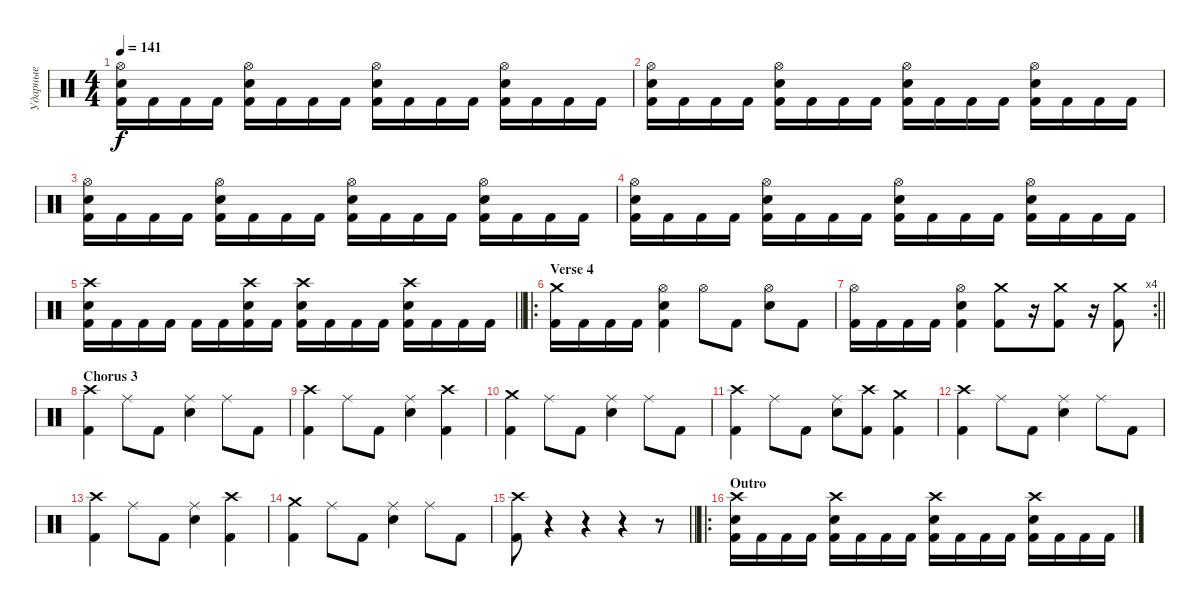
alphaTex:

\track ("Ударные" "Ударные") {instrument percussion}
\staff {score}
\articulation defaults
\ts (4 4)
\tempo 141
\clef neutral
\ks c
("Hi-Hat (open)" "Electric Snare (hit)" "Kick (hit) 2").16{dy f} "Kick (hit) 2".16 "Kick (hit) 2".16 "Kick (hit) 2".16 ("Hi-Hat (open)" "Electric Snare (hit)" "Kick (hit) 2").16 "Kick (hit) 2".16 "Kick (hit) 2".16 "Kick (hit) 2".16 ("Hi-Hat (open)" "Electric Snare (hit)" "Kick (hit) 2").16 "Kick (hit) 2".16 "Kick (hit) 2".16 "Kick (hit) 2".16 ("Hi-Hat (open)" "Electric Snare (hit)" "Kick (hit) 2").16 "Kick (hit) 2".16 "Kick (hit) 2".16 "Kick (hit) 2".16 |
("Hi-Hat (open)" "Electric Snare (hit)" "Kick (hit) 2").16 "Kick (hit) 2".16 "Kick (hit) 2".16 "Kick (hit) 2".16 ("Hi-Hat (open)" "Electric Snare (hit)" "Kick (hit) 2").16 "Kick (hit) 2".16 "Kick (hit) 2".16 "Kick (hit) 2".16 ("Hi-Hat (open)" "Electric Snare (hit)" "Kick (hit) 2").16 "Kick (hit) 2".16 "Kick (hit) 2".16 "Kick (hit) 2".16 ("Hi-Hat (open)" "Electric Snare (hit)" "Kick (hit) 2").16 "Kick (hit) 2".16 "Kick (hit) 2".16 "Kick (hit) 2".16 |
("Hi-Hat (open)" "Electric Snare (hit)" "Kick (hit) 2").16 "Kick (hit) 2".16 "Kick (hit) 2".16 "Kick (hit) 2".16 ("Hi-Hat (open)" "Electric Snare (hit)" "Kick (hit) 2").16 "Kick (hit) 2".16 "Kick (hit) 2".16 "Kick (hit) 2".16 ("Hi-Hat (open)" "Electric Snare (hit)" "Kick (hit) 2").16 "Kick (hit) 2".16 "Kick (hit) 2".16 "Kick (hit) 2".16 ("Hi-Hat (open)" "Electric Snare (hit)" "Kick (hit) 2").16 "Kick (hit) 2".16 "Kick (hit) 2".16 "Kick (hit) 2".16 |
("Hi-Hat (open)" "Electric Snare (hit)" "Kick (hit) 2").16 "Kick (hit) 2".16 "Kick (hit) 2".16 "Kick (hit) 2".16 ("Hi-Hat (open)" "Electric Snare (hit)" "Kick (hit) 2").16 "Kick (hit) 2".16 "Kick (hit) 2".16 "Kick (hit) 2".16 ("Hi-Hat (open)" "Electric Snare (hit)" "Kick (hit) 2").16 "Kick (hit) 2".16 "Kick (hit) 2".16 "Kick (hit) 2".16 ("Hi-Hat (open)" "Electric Snare (hit)" "Kick (hit) 2").16 "Kick (hit) 2".16 "Kick (hit) 2".16 "Kick (hit) 2".16 |
\barLineRight lightlight
("Crash high (hit)" "Electric Snare (hit)" "Kick (hit) 2").16 "Kick (hit) 2".16 "Kick (hit) 2".16 "Kick (hit) 2".16 "Kick (hit) 2".16 "Kick (hit) 2".16 ("Crash high (hit)" "Electric Snare (hit)" "Kick (hit) 2").16 "Kick (hit) 2".16 ("Crash high (hit)" "Electric Snare (hit)" "Kick (hit) 2").16 "Kick (hit) 2".16 "Kick (hit) 2".16 "Kick (hit) 2".16 ("Crash high (hit)" "Electric Snare (hit)" "Kick (hit) 2").16 "Kick (hit) 2".16 "Kick (hit) 2".16 "Kick (hit) 2".16 |
\ro
\section ("" "Verse 4")
("Crash medium (hit)" "Kick (hit) 2").16 "Kick (hit) 2".16 "Kick (hit) 2".16 "Kick (hit) 2".16 ("Hi-Hat (open)" "Electric Snare (hit)" "Kick (hit) 2").4 "Hi-Hat (open)".8 "Kick (hit) 2".8 ("Hi-Hat (open)" "Electric Snare (hit)").8 "Kick (hit) 2".8 |
\rc 4
\barLineRight lightlight
("Hi-Hat (open)" "Kick (hit) 2").16 "Kick (hit) 2".16 "Kick (hit) 2".16 "Kick (hit) 2".16 ("Hi-Hat (open)" "Electric Snare (hit)" "Kick (hit) 2").4 ("Crash medium (hit)" "Kick (hit) 2").8 r.16 ("Crash medium (hit)" "Kick (hit) 2").8 r.16 ("Crash medium (hit)" "Kick (hit) 2").8 |
\section ("" "Chorus 3")
("Crash high (hit)" "Kick (hit) 2").4 "Ride (middle)".8 "Kick (hit) 2".8 ("Ride (middle)" "Electric Snare (hit)").4 "Ride (middle)".8 "Kick (hit) 2".8 |
("Crash high (hit)" "Kick (hit) 2").4 "Ride (middle)".8 "Kick (hit) 2".8 ("Ride (middle)" "Electric Snare (hit)").4 ("Crash high (hit)" "Kick (hit) 2").4 |
("Crash medium (hit)" "Kick (hit) 2").4 "Ride (middle)".8 "Kick (hit) 2".8 ("Ride (middle)" "Electric Snare (hit)").4 "Ride (middle)".8 "Kick (hit) 2".8 |
("Crash high (hit)" "Kick (hit) 2").4 "Ride (middle)".8 "Kick (hit) 2".8 ("Ride (middle)" "Electric Snare (hit)").8 ("Crash high (hit)" "Kick (hit) 2").8 ("Crash medium (hit)" "Kick (hit) 2").4 |
("Crash high (hit)" "Kick (hit) 2").4 "Ride (middle)".8 "Kick (hit) 2".8 ("Ride (middle)" "Electric Snare (hit)").4 "Ride (middle)".8 "Kick (hit) 2".8 |
("Crash high (hit)" "Kick (hit) 2").4 "Ride (middle)".8 "Kick (hit) 2".8 ("Ride (middle)" "Electric Snare (hit)").4 ("Crash high (hit)" "Kick (hit) 2").4 |
("Crash medium (hit)" "Kick (hit) 2").4 "Ride (middle)".8 "Kick (hit) 2".8 ("Ride (middle)" "Electric Snare (hit)").4 "Ride (middle)".8 "Kick (hit) 2".8 |
\barLineRight lightlight
("Crash high (hit)" "Kick (hit) 2").8 r.4 r.4 r.4 r.8 |
\ro
\section ("" "Outro")
("Crash high (hit)" "Electric Snare (hit)" "Kick (hit) 2").16 "Kick (hit) 2".16 "Kick (hit) 2".16 "Kick (hit) 2".16 ("Crash high (hit)" "Electric Snare (hit)" "Kick (hit) 2").16 "Kick (hit) 2".16 "Kick (hit) 2".16 "Kick (hit) 2".16 ("Crash high (hit)" "Electric Snare (hit)" "Kick (hit) 2").16 "Kick (hit) 2".16 "Kick (hit) 2".16 "Kick (hit) 2".16 ("Crash high (hit)" "Electric Snare (hit)" "Kick (hit) 2").16 "Kick (hit) 2".16 "Kick (hit) 2".16 "Kick (hit) 2".16
